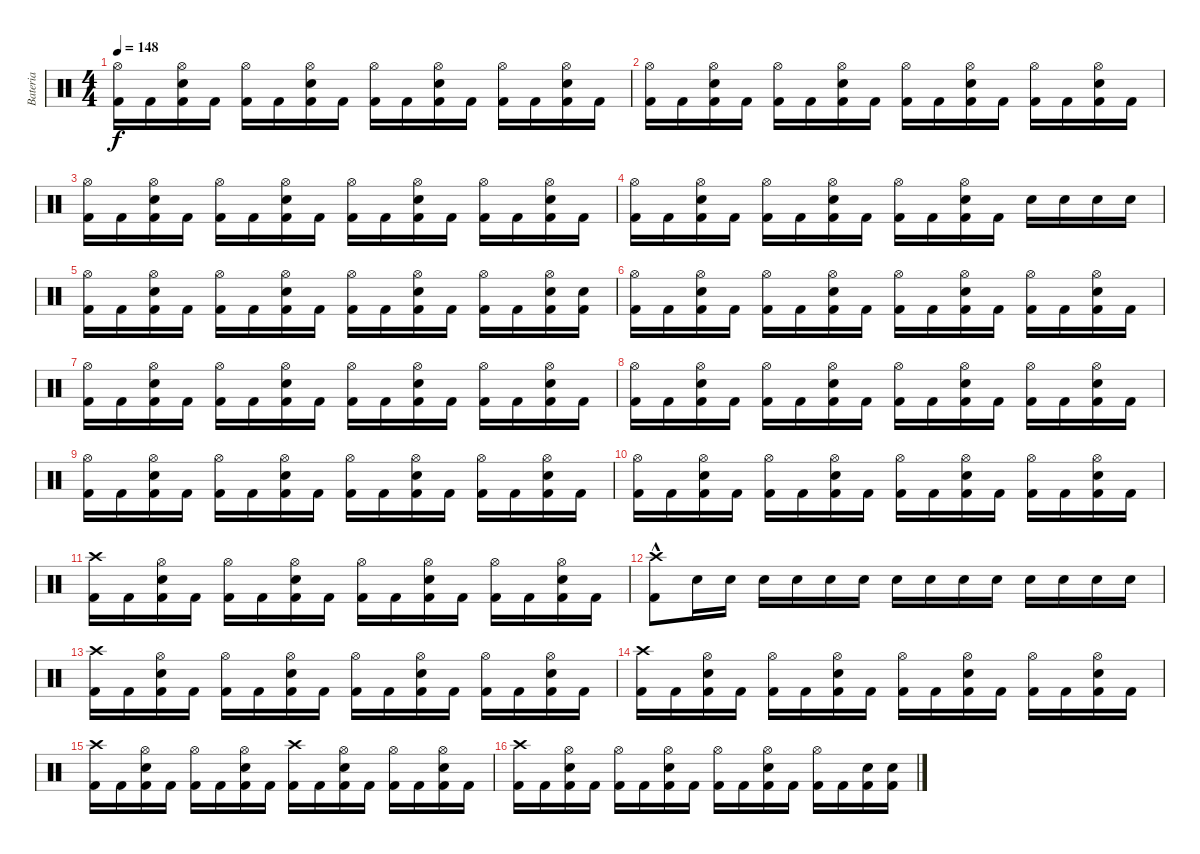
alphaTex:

\track ("Bateria" "Bateria") {instrument percussion}
\staff {score}
\articulation defaults
\ts (4 4)
\tempo 148
\clef neutral
\ks c
("Kick (hit) 2" "Hi-Hat (open)").16{dy f} "Kick (hit) 2".16 ("Kick (hit) 2" "Snare (hit) 2" "Hi-Hat (open)").16 "Kick (hit) 2".16 ("Kick (hit) 2" "Hi-Hat (open)").16 "Kick (hit) 2".16 ("Kick (hit) 2" "Snare (hit) 2" "Hi-Hat (open)").16 "Kick (hit) 2".16 ("Kick (hit) 2" "Hi-Hat (open)").16 "Kick (hit) 2".16 ("Kick (hit) 2" "Snare (hit) 2" "Hi-Hat (open)").16 "Kick (hit) 2".16 ("Kick (hit) 2" "Hi-Hat (open)").16 "Kick (hit) 2".16 ("Kick (hit) 2" "Snare (hit) 2" "Hi-Hat (open)").16 "Kick (hit) 2".16 |
("Kick (hit) 2" "Hi-Hat (open)").16 "Kick (hit) 2".16 ("Kick (hit) 2" "Snare (hit) 2" "Hi-Hat (open)").16 "Kick (hit) 2".16 ("Kick (hit) 2" "Hi-Hat (open)").16 "Kick (hit) 2".16 ("Kick (hit) 2" "Snare (hit) 2" "Hi-Hat (open)").16 "Kick (hit) 2".16 ("Kick (hit) 2" "Hi-Hat (open)").16 "Kick (hit) 2".16 ("Kick (hit) 2" "Snare (hit) 2" "Hi-Hat (open)").16 "Kick (hit) 2".16 ("Kick (hit) 2" "Hi-Hat (open)").16 "Kick (hit) 2".16 ("Kick (hit) 2" "Snare (hit) 2" "Hi-Hat (open)").16 "Kick (hit) 2".16 |
("Kick (hit) 2" "Hi-Hat (open)").16 "Kick (hit) 2".16 ("Kick (hit) 2" "Snare (hit) 2" "Hi-Hat (open)").16 "Kick (hit) 2".16 ("Kick (hit) 2" "Hi-Hat (open)").16 "Kick (hit) 2".16 ("Kick (hit) 2" "Snare (hit) 2" "Hi-Hat (open)").16 "Kick (hit) 2".16 ("Kick (hit) 2" "Hi-Hat (open)").16 "Kick (hit) 2".16 ("Kick (hit) 2" "Snare (hit) 2" "Hi-Hat (open)").16 "Kick (hit) 2".16 ("Kick (hit) 2" "Hi-Hat (open)").16 "Kick (hit) 2".16 ("Kick (hit) 2" "Snare (hit) 2" "Hi-Hat (open)").16 "Kick (hit) 2".16 |
("Kick (hit) 2" "Hi-Hat (open)").16 "Kick (hit) 2".16 ("Kick (hit) 2" "Snare (hit) 2" "Hi-Hat (open)").16 "Kick (hit) 2".16 ("Kick (hit) 2" "Hi-Hat (open)").16 "Kick (hit) 2".16 ("Kick (hit) 2" "Snare (hit) 2" "Hi-Hat (open)").16 "Kick (hit) 2".16 ("Kick (hit) 2" "Hi-Hat (open)").16 "Kick (hit) 2".16 ("Kick (hit) 2" "Snare (hit) 2" "Hi-Hat (open)").16 "Kick (hit) 2".16 "Snare (hit) 2".16 "Snare (hit) 2".16 "Snare (hit) 2".16 "Snare (hit) 2".16 |
("Kick (hit) 2" "Hi-Hat (open)").16 "Kick (hit) 2".16 ("Kick (hit) 2" "Snare (hit) 2" "Hi-Hat (open)").16 "Kick (hit) 2".16 ("Kick (hit) 2" "Hi-Hat (open)").16 "Kick (hit) 2".16 ("Kick (hit) 2" "Snare (hit) 2" "Hi-Hat (open)").16 "Kick (hit) 2".16 ("Kick (hit) 2" "Hi-Hat (open)").16 "Kick (hit) 2".16 ("Kick (hit) 2" "Snare (hit) 2" "Hi-Hat (open)").16 "Kick (hit) 2".16 ("Kick (hit) 2" "Hi-Hat (open)").16 "Kick (hit) 2".16 ("Kick (hit) 2" "Hi-Hat (open)" "Snare (hit) 2").16 ("Kick (hit) 2" "Snare (hit) 2").16 |
("Kick (hit) 2" "Hi-Hat (open)").16 "Kick (hit) 2".16 ("Kick (hit) 2" "Snare (hit) 2" "Hi-Hat (open)").16 "Kick (hit) 2".16 ("Kick (hit) 2" "Hi-Hat (open)").16 "Kick (hit) 2".16 ("Kick (hit) 2" "Snare (hit) 2" "Hi-Hat (open)").16 "Kick (hit) 2".16 ("Kick (hit) 2" "Hi-Hat (open)").16 "Kick (hit) 2".16 ("Kick (hit) 2" "Snare (hit) 2" "Hi-Hat (open)").16 "Kick (hit) 2".16 ("Kick (hit) 2" "Hi-Hat (open)").16 "Kick (hit) 2".16 ("Kick (hit) 2" "Snare (hit) 2" "Hi-Hat (open)").16 "Kick (hit) 2".16 |
("Kick (hit) 2" "Hi-Hat (open)").16 "Kick (hit) 2".16 ("Kick (hit) 2" "Snare (hit) 2" "Hi-Hat (open)").16 "Kick (hit) 2".16 ("Kick (hit) 2" "Hi-Hat (open)").16 "Kick (hit) 2".16 ("Kick (hit) 2" "Snare (hit) 2" "Hi-Hat (open)").16 "Kick (hit) 2".16 ("Kick (hit) 2" "Hi-Hat (open)").16 "Kick (hit) 2".16 ("Kick (hit) 2" "Snare (hit) 2" "Hi-Hat (open)").16 "Kick (hit) 2".16 ("Kick (hit) 2" "Hi-Hat (open)").16 "Kick (hit) 2".16 ("Kick (hit) 2" "Snare (hit) 2" "Hi-Hat (open)").16 "Kick (hit) 2".16 |
("Kick (hit) 2" "Hi-Hat (open)").16 "Kick (hit) 2".16 ("Kick (hit) 2" "Snare (hit) 2" "Hi-Hat (open)").16 "Kick (hit) 2".16 ("Kick (hit) 2" "Hi-Hat (open)").16 "Kick (hit) 2".16 ("Kick (hit) 2" "Snare (hit) 2" "Hi-Hat (open)").16 "Kick (hit) 2".16 ("Kick (hit) 2" "Hi-Hat (open)").16 "Kick (hit) 2".16 ("Kick (hit) 2" "Snare (hit) 2" "Hi-Hat (open)").16 "Kick (hit) 2".16 ("Kick (hit) 2" "Hi-Hat (open)").16 "Kick (hit) 2".16 ("Kick (hit) 2" "Snare (hit) 2" "Hi-Hat (open)").16 "Kick (hit) 2".16 |
("Kick (hit) 2" "Hi-Hat (open)").16 "Kick (hit) 2".16 ("Kick (hit) 2" "Snare (hit) 2" "Hi-Hat (open)").16 "Kick (hit) 2".16 ("Kick (hit) 2" "Hi-Hat (open)").16 "Kick (hit) 2".16 ("Kick (hit) 2" "Snare (hit) 2" "Hi-Hat (open)").16 "Kick (hit) 2".16 ("Kick (hit) 2" "Hi-Hat (open)").16 "Kick (hit) 2".16 ("Kick (hit) 2" "Snare (hit) 2" "Hi-Hat (open)").16 "Kick (hit) 2".16 ("Kick (hit) 2" "Hi-Hat (open)").16 "Kick (hit) 2".16 ("Kick (hit) 2" "Snare (hit) 2" "Hi-Hat (open)").16 "Kick (hit) 2".16 |
("Kick (hit) 2" "Hi-Hat (open)").16 "Kick (hit) 2".16 ("Kick (hit) 2" "Snare (hit) 2" "Hi-Hat (open)").16 "Kick (hit) 2".16 ("Kick (hit) 2" "Hi-Hat (open)").16 "Kick (hit) 2".16 ("Kick (hit) 2" "Snare (hit) 2" "Hi-Hat (open)").16 "Kick (hit) 2".16 ("Kick (hit) 2" "Hi-Hat (open)").16 "Kick (hit) 2".16 ("Kick (hit) 2" "Snare (hit) 2" "Hi-Hat (open)").16 "Kick (hit) 2".16 ("Kick (hit) 2" "Hi-Hat (open)").16 "Kick (hit) 2".16 ("Kick (hit) 2" "Snare (hit) 2" "Hi-Hat (open)").16 "Kick (hit) 2".16 |
("Kick (hit) 2" "Crash high (hit)").16 "Kick (hit) 2".16 ("Kick (hit) 2" "Snare (hit) 2" "Hi-Hat (open)").16 "Kick (hit) 2".16 ("Kick (hit) 2" "Hi-Hat (open)").16 "Kick (hit) 2".16 ("Kick (hit) 2" "Snare (hit) 2" "Hi-Hat (open)").16 "Kick (hit) 2".16 ("Kick (hit) 2" "Hi-Hat (open)").16 "Kick (hit) 2".16 ("Kick (hit) 2" "Snare (hit) 2" "Hi-Hat (open)").16 "Kick (hit) 2".16 ("Kick (hit) 2" "Hi-Hat (open)").16 "Kick (hit) 2".16 ("Kick (hit) 2" "Snare (hit) 2" "Hi-Hat (open)").16 "Kick (hit) 2".16 |
("Kick (hit) 2"{hac} "Crash high (hit)").8 "Snare (hit) 2".16 "Snare (hit) 2".16 "Snare (hit) 2".16 "Snare (hit) 2".16 "Snare (hit) 2".16 "Snare (hit) 2".16 "Snare (hit) 2".16 "Snare (hit) 2".16 "Snare (hit) 2".16 "Snare (hit) 2".16 "Snare (hit) 2".16 "Snare (hit) 2".16 "Snare (hit) 2".16 "Snare (hit) 2".16 |
("Kick (hit) 2" "Crash high (hit)").16 "Kick (hit) 2".16 ("Kick (hit) 2" "Snare (hit) 2" "Hi-Hat (open)").16 "Kick (hit) 2".16 ("Kick (hit) 2" "Hi-Hat (open)").16 "Kick (hit) 2".16 ("Kick (hit) 2" "Snare (hit) 2" "Hi-Hat (open)").16 "Kick (hit) 2".16 ("Kick (hit) 2" "Hi-Hat (open)").16 "Kick (hit) 2".16 ("Kick (hit) 2" "Snare (hit) 2" "Hi-Hat (open)").16 "Kick (hit) 2".16 ("Kick (hit) 2" "Hi-Hat (open)").16 "Kick (hit) 2".16 ("Kick (hit) 2" "Snare (hit) 2" "Hi-Hat (open)").16 "Kick (hit) 2".16 |
("Kick (hit) 2" "Crash high (hit)").16 "Kick (hit) 2".16 ("Kick (hit) 2" "Snare (hit) 2" "Hi-Hat (open)").16 "Kick (hit) 2".16 ("Kick (hit) 2" "Hi-Hat (open)").16 "Kick (hit) 2".16 ("Kick (hit) 2" "Snare (hit) 2" "Hi-Hat (open)").16 "Kick (hit) 2".16 ("Kick (hit) 2" "Hi-Hat (open)").16 "Kick (hit) 2".16 ("Kick (hit) 2" "Snare (hit) 2" "Hi-Hat (open)").16 "Kick (hit) 2".16 ("Kick (hit) 2" "Hi-Hat (open)").16 "Kick (hit) 2".16 ("Kick (hit) 2" "Snare (hit) 2" "Hi-Hat (open)").16 "Kick (hit) 2".16 |
("Kick (hit) 2" "Crash high (hit)").16 "Kick (hit) 2".16 ("Kick (hit) 2" "Snare (hit) 2" "Hi-Hat (open)").16 "Kick (hit) 2".16 ("Kick (hit) 2" "Hi-Hat (open)").16 "Kick (hit) 2".16 ("Kick (hit) 2" "Snare (hit) 2" "Hi-Hat (open)").16 "Kick (hit) 2".16 ("Kick (hit) 2" "Crash high (hit)").16 "Kick (hit) 2".16 ("Kick (hit) 2" "Snare (hit) 2" "Hi-Hat (open)").16 "Kick (hit) 2".16 ("Kick (hit) 2" "Hi-Hat (open)").16 "Kick (hit) 2".16 ("Kick (hit) 2" "Snare (hit) 2" "Hi-Hat (open)").16 "Kick (hit) 2".16 |
("Kick (hit) 2" "Crash high (hit)").16 "Kick (hit) 2".16 ("Kick (hit) 2" "Snare (hit) 2" "Hi-Hat (open)").16 "Kick (hit) 2".16 ("Kick (hit) 2" "Hi-Hat (open)").16 "Kick (hit) 2".16 ("Kick (hit) 2" "Snare (hit) 2" "Hi-Hat (open)").16 "Kick (hit) 2".16 ("Kick (hit) 2" "Hi-Hat (open)").16 "Kick (hit) 2".16 ("Kick (hit) 2" "Snare (hit) 2" "Hi-Hat (open)").16 "Kick (hit) 2".16 ("Kick (hit) 2" "Hi-Hat (open)").16 "Kick (hit) 2".16 ("Kick (hit) 2" "Snare (hit) 2").16 ("Kick (hit) 2" "Snare (hit) 2").16
